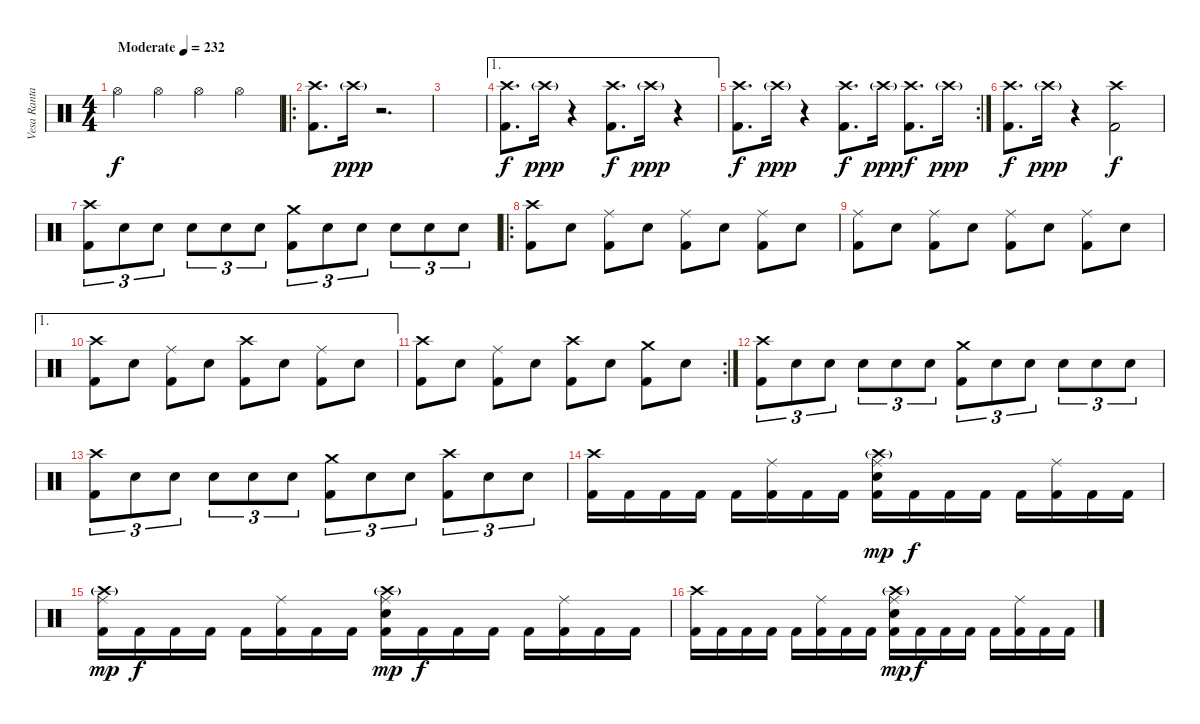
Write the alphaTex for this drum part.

\track ("Vesa Ranta" "Vesa Ranta") {instrument percussion}
\staff {score}
\articulation defaults
\ts (4 4)
\tempo (232 "Moderate")
\clef neutral
\ks c "Hi-Hat (open)".4{dy f} "Hi-Hat (open)".4 "Hi-Hat (open)".4 "Hi-Hat (open)".4
|
\ro
("Crash high (hit)" "Kick (hit) 2").8{d} "Crash high (hit)"{g}.16{dy ppp} r.2{d} |
|
\ae 1
("Crash high (hit)" "Kick (hit) 2").8{d dy f} "Crash high (hit)"{g}.16{dy ppp} r.4 ("Crash high (hit)" "Kick (hit) 2").8{d dy f} "Crash high (hit)"{g}.16{dy ppp} r.4 |
\rc 2
("Crash high (hit)" "Kick (hit) 2").8{d dy f} "Crash high (hit)"{g}.16{dy ppp} r.4 ("Crash high (hit)" "Kick (hit) 2").8{d dy f} "Crash high (hit)"{g}.16{dy ppp} ("Crash high (hit)" "Kick (hit) 2").8{d dy f} "Crash high (hit)"{g}.16{dy ppp} |
("Crash high (hit)" "Kick (hit) 2").8{d dy f} "Crash high (hit)"{g}.16{dy ppp} r.4 ("Crash high (hit)" "Kick (hit) 2").2{dy f} |
("Crash high (hit)" "Kick (hit) 2").8{tu (3 2)} "Electric Snare (hit)".8{tu (3 2)} "Electric Snare (hit)".8{tu (3 2)} "Electric Snare (hit)".8{tu (3 2)} "Electric Snare (hit)".8{tu (3 2)} "Electric Snare (hit)".8{tu (3 2)} ("Crash medium (hit)" "Kick (hit) 2").8{tu (3 2)} "Electric Snare (hit)".8{tu (3 2)} "Electric Snare (hit)".8{tu (3 2)} "Electric Snare (hit)".8{tu (3 2)} "Electric Snare (hit)".8{tu (3 2)} "Electric Snare (hit)".8{tu (3 2)} |
\ro
("Crash high (hit)" "Kick (hit) 2").8 "Electric Snare (hit)".8 ("Ride (middle)" "Kick (hit) 2").8 "Electric Snare (hit)".8 ("Ride (middle)" "Kick (hit) 2").8 "Electric Snare (hit)".8 ("Ride (middle)" "Kick (hit) 2").8 "Electric Snare (hit)".8 |
("Ride (middle)" "Kick (hit) 2").8 "Electric Snare (hit)".8 ("Ride (middle)" "Kick (hit) 2").8 "Electric Snare (hit)".8 ("Ride (middle)" "Kick (hit) 2").8 "Electric Snare (hit)".8 ("Ride (middle)" "Kick (hit) 2").8 "Electric Snare (hit)".8 |
\ae 1
("Crash high (hit)" "Kick (hit) 2").8 "Electric Snare (hit)".8 ("Ride (middle)" "Kick (hit) 2").8 "Electric Snare (hit)".8 ("Crash high (hit)" "Kick (hit) 2").8 "Electric Snare (hit)".8 ("Ride (middle)" "Kick (hit) 2").8 "Electric Snare (hit)".8 |
\rc 2
("Crash high (hit)" "Kick (hit) 2").8 "Electric Snare (hit)".8 ("Ride (middle)" "Kick (hit) 2").8 "Electric Snare (hit)".8 ("Crash high (hit)" "Kick (hit) 2").8 "Electric Snare (hit)".8 ("Crash medium (hit)" "Kick (hit) 2").8 "Electric Snare (hit)".8 |
("Crash high (hit)" "Kick (hit) 2").8{tu (3 2)} "Electric Snare (hit)".8{tu (3 2)} "Electric Snare (hit)".8{tu (3 2)} "Electric Snare (hit)".8{tu (3 2)} "Electric Snare (hit)".8{tu (3 2)} "Electric Snare (hit)".8{tu (3 2)} ("Crash medium (hit)" "Kick (hit) 2").8{tu (3 2)} "Electric Snare (hit)".8{tu (3 2)} "Electric Snare (hit)".8{tu (3 2)} "Electric Snare (hit)".8{tu (3 2)} "Electric Snare (hit)".8{tu (3 2)} "Electric Snare (hit)".8{tu (3 2)} |
("Crash high (hit)" "Kick (hit) 2").8{tu (3 2)} "Electric Snare (hit)".8{tu (3 2)} "Electric Snare (hit)".8{tu (3 2)} "Electric Snare (hit)".8{tu (3 2)} "Electric Snare (hit)".8{tu (3 2)} "Electric Snare (hit)".8{tu (3 2)} ("Crash medium (hit)" "Kick (hit) 2").8{tu (3 2)} "Electric Snare (hit)".8{tu (3 2)} "Electric Snare (hit)".8{tu (3 2)} ("Crash high (hit)" "Kick (hit) 2").8{tu (3 2)} "Electric Snare (hit)".8{tu (3 2)} "Electric Snare (hit)".8{tu (3 2)} |
("Crash high (hit)" "Kick (hit) 2").16 "Kick (hit) 2".16 "Kick (hit) 2".16 "Kick (hit) 2".16 "Kick (hit) 2".16 ("Ride (middle)" "Kick (hit) 2").16 "Kick (hit) 2".16 "Kick (hit) 2".16 ("Ride (middle)" "Crash high (hit)"{g} "Electric Snare (hit)" "Kick (hit) 2").16{dy mp} "Kick (hit) 2".16{dy f} "Kick (hit) 2".16 "Kick (hit) 2".16 "Kick (hit) 2".16 ("Ride (middle)" "Kick (hit) 2").16 "Kick (hit) 2".16 "Kick (hit) 2".16 |
("Ride (middle)" "Crash high (hit)"{g} "Kick (hit) 2").16{dy mp} "Kick (hit) 2".16{dy f} "Kick (hit) 2".16 "Kick (hit) 2".16 "Kick (hit) 2".16 ("Ride (middle)" "Kick (hit) 2").16 "Kick (hit) 2".16 "Kick (hit) 2".16 ("Ride (middle)" "Crash high (hit)"{g} "Electric Snare (hit)" "Kick (hit) 2").16{dy mp} "Kick (hit) 2".16{dy f} "Kick (hit) 2".16 "Kick (hit) 2".16 "Kick (hit) 2".16 ("Ride (middle)" "Kick (hit) 2").16 "Kick (hit) 2".16 "Kick (hit) 2".16 |
("Crash high (hit)" "Kick (hit) 2").16 "Kick (hit) 2".16 "Kick (hit) 2".16 "Kick (hit) 2".16 "Kick (hit) 2".16 ("Ride (middle)" "Kick (hit) 2").16 "Kick (hit) 2".16 "Kick (hit) 2".16 ("Ride (middle)" "Crash high (hit)"{g} "Electric Snare (hit)" "Kick (hit) 2").16{dy mp} "Kick (hit) 2".16{dy f} "Kick (hit) 2".16 "Kick (hit) 2".16 "Kick (hit) 2".16 ("Ride (middle)" "Kick (hit) 2").16 "Kick (hit) 2".16 "Kick (hit) 2".16
